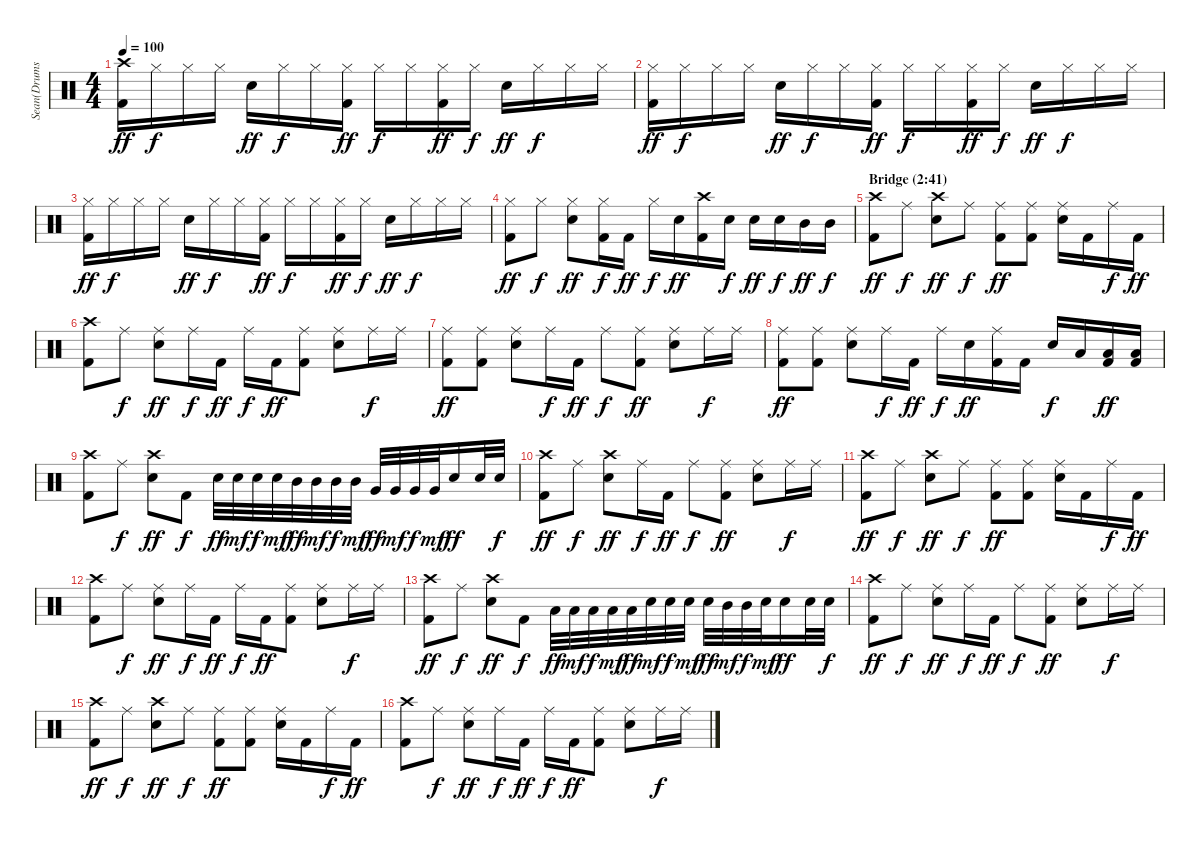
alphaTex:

\track ("Sean(Drums)" "Sean(Drums") {instrument percussion}
\staff {score}
\articulation defaults
\ts (4 4)
\tempo 100
\clef neutral
\ks c
("Crash high (hit)" "Kick (hit) 2").16{dy ff} "Hi-Hat (closed)".16{dy f} "Hi-Hat (closed)".16 "Hi-Hat (closed)".16 "Electric Snare (hit)".16{dy ff} "Hi-Hat (closed)".16{dy f} "Hi-Hat (closed)".16 ("Hi-Hat (closed)" "Kick (hit) 2").16{dy ff} "Hi-Hat (closed)".16{dy f} "Hi-Hat (closed)".16 ("Hi-Hat (closed)" "Kick (hit) 2").16{dy ff} "Hi-Hat (closed)".16{dy f} "Electric Snare (hit)".16{dy ff} "Hi-Hat (closed)".16{dy f} "Hi-Hat (closed)".16 "Hi-Hat (closed)".16 |
("Hi-Hat (closed)" "Kick (hit) 2").16{dy ff} "Hi-Hat (closed)".16{dy f} "Hi-Hat (closed)".16 "Hi-Hat (closed)".16 "Electric Snare (hit)".16{dy ff} "Hi-Hat (closed)".16{dy f} "Hi-Hat (closed)".16 ("Hi-Hat (closed)" "Kick (hit) 2").16{dy ff} "Hi-Hat (closed)".16{dy f} "Hi-Hat (closed)".16 ("Hi-Hat (closed)" "Kick (hit) 2").16{dy ff} "Hi-Hat (closed)".16{dy f} "Electric Snare (hit)".16{dy ff} "Hi-Hat (closed)".16{dy f} "Hi-Hat (closed)".16 "Hi-Hat (closed)".16 |
("Hi-Hat (closed)" "Kick (hit) 2").16{dy ff} "Hi-Hat (closed)".16{dy f} "Hi-Hat (closed)".16 "Hi-Hat (closed)".16 "Electric Snare (hit)".16{dy ff} "Hi-Hat (closed)".16{dy f} "Hi-Hat (closed)".16 ("Hi-Hat (closed)" "Kick (hit) 2").16{dy ff} "Hi-Hat (closed)".16{dy f} "Hi-Hat (closed)".16 ("Hi-Hat (closed)" "Kick (hit) 2").16{dy ff} "Hi-Hat (closed)".16{dy f} "Electric Snare (hit)".16{dy ff} "Hi-Hat (closed)".16{dy f} "Hi-Hat (closed)".16 "Hi-Hat (closed)".16 |
("Hi-Hat (closed)" "Kick (hit) 2").8{dy ff} "Hi-Hat (closed)".8{dy f} ("Hi-Hat (closed)" "Electric Snare (hit)").8{dy ff} ("Hi-Hat (closed)" "Kick (hit) 2").16{dy f} "Kick (hit) 2".16{dy ff} "Hi-Hat (closed)".16{dy f} "Electric Snare (hit)".16{dy ff} ("Crash high (hit)" "Kick (hit) 2").16 "Electric Snare (hit)".16{dy f} "Electric Snare (hit)".16{dy ff} "Electric Snare (hit)".16{dy f} "Mid Tom (hit)".16{dy ff} "Mid Tom (hit)".16{dy f} |
\section ("" "Bridge (2:41)")
("Crash high (hit)" "Kick (hit) 2").8{dy ff} "Ride (middle)".8{dy f} ("Crash high (hit)" "Electric Snare (hit)").8{dy ff} "Ride (middle)".8{dy f} ("Ride (middle)" "Kick (hit) 2").8{dy ff} ("Ride (middle)" "Kick (hit) 2").8 ("Ride (middle)" "Electric Snare (hit)").16 "Kick (hit) 2".16 "Ride (middle)".16{dy f} "Kick (hit) 2".16{dy ff} |
("Crash high (hit)" "Kick (hit) 2").8 "Ride (middle)".8{dy f} ("Ride (middle)" "Electric Snare (hit)").8{dy ff} "Ride (middle)".16{dy f} "Kick (hit) 2".16{dy ff} "Ride (middle)".16{dy f} "Kick (hit) 2".16{dy ff} ("Ride (middle)" "Kick (hit) 2").8 ("Ride (middle)" "Electric Snare (hit)").8 "Ride (middle)".16{dy f} "Ride (middle)".16 |
("Ride (middle)" "Kick (hit) 2").8{dy ff} ("Ride (middle)" "Kick (hit) 2").8 ("Ride (middle)" "Electric Snare (hit)").8 "Ride (middle)".16{dy f} "Kick (hit) 2".16{dy ff} "Ride (middle)".8{dy f} ("Ride (middle)" "Kick (hit) 2").8{dy ff} ("Ride (middle)" "Electric Snare (hit)").8 "Ride (middle)".16{dy f} "Ride (middle)".16 |
("Ride (middle)" "Kick (hit) 2").8{dy ff} ("Ride (middle)" "Kick (hit) 2").8 ("Ride (middle)" "Electric Snare (hit)").8 "Ride (middle)".16{dy f} "Kick (hit) 2".16{dy ff} "Ride (middle)".16{dy f} "Electric Snare (hit)".16{dy ff} ("Ride (middle)" "Kick (hit) 2").16 "Kick (hit) 2".16 "Electric Snare (hit)".16{dy f} "Low Floor Tom (hit)".16 ("Low Floor Tom (hit)" "Kick (hit) 2").16{dy ff} ("Low Floor Tom (hit)" "Kick (hit) 2").16 |
("Crash high (hit)" "Kick (hit) 2").8 "Ride (middle)".8{dy f} ("Crash high (hit)" "Electric Snare (hit)").8{dy ff} "Kick (hit) 2".8{dy f} "Electric Snare (hit)".32{dy ff} "Electric Snare (hit)".32{dy mf} "Electric Snare (hit)".32{dy f} "Electric Snare (hit)".32{dy mf} "Mid Tom (hit)".32{dy ff} "Mid Tom (hit)".32{dy mf} "Mid Tom (hit)".32{dy f} "Mid Tom (hit)".32{dy mf} "Very Low Tom (hit)".32{dy ff} "Very Low Tom (hit)".32{dy mf} "Very Low Tom (hit)".32{dy f} "Very Low Tom (hit)".32{dy mf} "Electric Snare (hit)".16{dy ff} "Electric Snare (hit)".32 "Electric Snare (hit)".32{dy f} |
("Crash high (hit)" "Kick (hit) 2").8{dy ff} "Ride (middle)".8{dy f} ("Crash high (hit)" "Electric Snare (hit)").8{dy ff} "Ride (middle)".16{dy f} "Kick (hit) 2".16{dy ff} "Ride (middle)".8{dy f} ("Ride (middle)" "Kick (hit) 2").8{dy ff} ("Ride (middle)" "Electric Snare (hit)").8 "Ride (middle)".16{dy f} "Ride (middle)".16 |
("Crash high (hit)" "Kick (hit) 2").8{dy ff} "Ride (middle)".8{dy f} ("Crash high (hit)" "Electric Snare (hit)").8{dy ff} "Ride (middle)".8{dy f} ("Ride (middle)" "Kick (hit) 2").8{dy ff} ("Ride (middle)" "Kick (hit) 2").8 ("Ride (middle)" "Electric Snare (hit)").16 "Kick (hit) 2".16 "Ride (middle)".16{dy f} "Kick (hit) 2".16{dy ff} |
("Crash high (hit)" "Kick (hit) 2").8 "Ride (middle)".8{dy f} ("Ride (middle)" "Electric Snare (hit)").8{dy ff} "Ride (middle)".16{dy f} "Kick (hit) 2".16{dy ff} "Ride (middle)".16{dy f} "Kick (hit) 2".16{dy ff} ("Ride (middle)" "Kick (hit) 2").8 ("Ride (middle)" "Electric Snare (hit)").8 "Ride (middle)".16{dy f} "Ride (middle)".16 |
("Crash high (hit)" "Kick (hit) 2").8{dy ff} "Ride (middle)".8{dy f} ("Crash high (hit)" "Electric Snare (hit)").8{dy ff} "Kick (hit) 2".8{dy f} "Low Floor Tom (hit)".32{dy ff} "Low Floor Tom (hit)".32{dy mf} "Low Floor Tom (hit)".32{dy f} "Low Floor Tom (hit)".32{dy mf} "Low Floor Tom (hit)".32{dy ff} "Electric Snare (hit)".32{dy mf} "Electric Snare (hit)".32{dy f} "Electric Snare (hit)".32{dy mf} "Electric Snare (hit)".32{dy ff} "Mid Tom (hit)".32{dy mf} "Mid Tom (hit)".32{dy f} "Electric Snare (hit)".32{dy mf} "Electric Snare (hit)".16{dy ff} "Electric Snare (hit)".32 "Electric Snare (hit)".32{dy f} |
("Crash high (hit)" "Kick (hit) 2").8{dy ff} "Ride (middle)".8{dy f} ("Ride (middle)" "Electric Snare (hit)").8{dy ff} "Ride (middle)".16{dy f} "Kick (hit) 2".16{dy ff} "Ride (middle)".8{dy f} ("Ride (middle)" "Kick (hit) 2").8{dy ff} ("Ride (middle)" "Snare (hit) 2").8 "Ride (middle)".16{dy f} "Ride (middle)".16 |
("Crash high (hit)" "Kick (hit) 2").8{dy ff} "Ride (middle)".8{dy f} ("Crash high (hit)" "Electric Snare (hit)").8{dy ff} "Ride (middle)".8{dy f} ("Ride (middle)" "Kick (hit) 2").8{dy ff} ("Ride (middle)" "Kick (hit) 2").8 ("Ride (middle)" "Electric Snare (hit)").16 "Kick (hit) 2".16 "Ride (middle)".16{dy f} "Kick (hit) 2".16{dy ff} |
("Crash high (hit)" "Kick (hit) 2").8 "Ride (middle)".8{dy f} ("Ride (middle)" "Electric Snare (hit)").8{dy ff} "Ride (middle)".16{dy f} "Kick (hit) 2".16{dy ff} "Ride (middle)".16{dy f} "Kick (hit) 2".16{dy ff} ("Ride (middle)" "Kick (hit) 2").8 ("Ride (middle)" "Electric Snare (hit)").8 "Ride (middle)".16{dy f} "Ride (middle)".16
